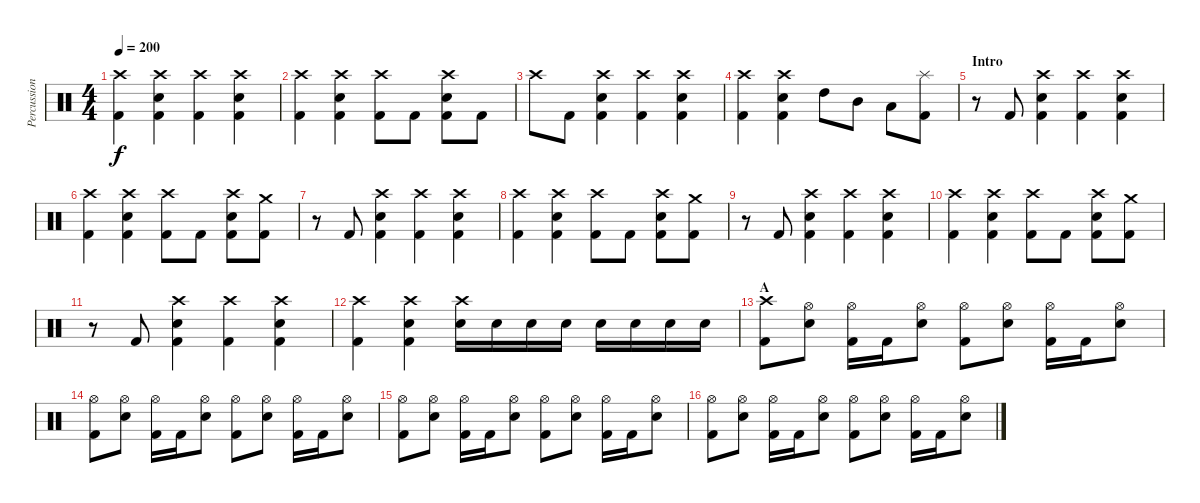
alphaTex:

\track ("Percussion" "Percussion") {instrument percussion}
\staff {score}
\articulation defaults
\ts (4 4)
\tempo 200
\clef neutral
\ks c
("Crash high (hit)" "Kick (hit) 2").4{dy f} ("Crash high (hit)" "Electric Snare (hit)" "Kick (hit) 2").4 ("Crash high (hit)" "Kick (hit) 2").4 ("Crash high (hit)" "Electric Snare (hit)" "Kick (hit) 2").4 |
("Crash high (hit)" "Kick (hit) 2").4 ("Crash high (hit)" "Electric Snare (hit)" "Kick (hit) 2").4 ("Crash high (hit)" "Kick (hit) 2").8 "Kick (hit) 2".8 ("Crash high (hit)" "Electric Snare (hit)" "Kick (hit) 2").8 "Kick (hit) 2".8 |
"Crash high (hit)".8 "Kick (hit) 2".8 ("Crash high (hit)" "Electric Snare (hit)" "Kick (hit) 2").4 ("Crash high (hit)" "Kick (hit) 2").4 ("Crash high (hit)" "Electric Snare (hit)" "Kick (hit) 2").4 |
("Crash high (hit)" "Kick (hit) 2").4 ("Crash high (hit)" "Electric Snare (hit)" "Kick (hit) 2").4 "High Tom (hit)".8 "Mid Tom (hit)".8 "Low Tom (hit)".8 ("Splash (hit)" "Kick (hit) 2").8 |
\section ("" "Intro")
r.8 "Kick (hit) 2".8 ("Crash high (hit)" "Electric Snare (hit)" "Kick (hit) 2").4 ("Crash high (hit)" "Kick (hit) 2").4 ("Crash high (hit)" "Electric Snare (hit)" "Kick (hit) 2").4 |
("Crash high (hit)" "Kick (hit) 2").4 ("Crash high (hit)" "Electric Snare (hit)" "Kick (hit) 2").4 ("Crash high (hit)" "Kick (hit) 2").8 "Kick (hit) 2".8 ("Crash high (hit)" "Electric Snare (hit)" "Kick (hit) 2").8 ("Crash medium (hit)" "Kick (hit) 2").8 |
r.8 "Kick (hit) 2".8 ("Crash high (hit)" "Electric Snare (hit)" "Kick (hit) 2").4 ("Crash high (hit)" "Kick (hit) 2").4 ("Crash high (hit)" "Electric Snare (hit)" "Kick (hit) 2").4 |
("Crash high (hit)" "Kick (hit) 2").4 ("Crash high (hit)" "Electric Snare (hit)" "Kick (hit) 2").4 ("Crash high (hit)" "Kick (hit) 2").8 "Kick (hit) 2".8 ("Crash high (hit)" "Electric Snare (hit)" "Kick (hit) 2").8 ("Crash medium (hit)" "Kick (hit) 2").8 |
r.8 "Kick (hit) 2".8 ("Crash high (hit)" "Electric Snare (hit)" "Kick (hit) 2").4 ("Crash high (hit)" "Kick (hit) 2").4 ("Crash high (hit)" "Electric Snare (hit)" "Kick (hit) 2").4 |
("Crash high (hit)" "Kick (hit) 2").4 ("Crash high (hit)" "Electric Snare (hit)" "Kick (hit) 2").4 ("Crash high (hit)" "Kick (hit) 2").8 "Kick (hit) 2".8 ("Crash high (hit)" "Electric Snare (hit)" "Kick (hit) 2").8 ("Crash medium (hit)" "Kick (hit) 2").8 |
r.8 "Kick (hit) 2".8 ("Crash high (hit)" "Electric Snare (hit)" "Kick (hit) 2").4 ("Crash high (hit)" "Kick (hit) 2").4 ("Crash high (hit)" "Electric Snare (hit)" "Kick (hit) 2").4 |
("Crash high (hit)" "Kick (hit) 2").4 ("Crash high (hit)" "Electric Snare (hit)" "Kick (hit) 2").4 ("Crash high (hit)" "Electric Snare (hit)").16 "Electric Snare (hit)".16 "Electric Snare (hit)".16 "Electric Snare (hit)".16 "Electric Snare (hit)".16 "Electric Snare (hit)".16 "Electric Snare (hit)".16 "Electric Snare (hit)".16 |
\section ("" "A")
("Crash high (hit)" "Kick (hit) 2").8 ("Hi-Hat (open)" "Electric Snare (hit)").8 ("Hi-Hat (open)" "Kick (hit) 2").16 "Kick (hit) 2".16 ("Hi-Hat (open)" "Electric Snare (hit)").8 ("Hi-Hat (open)" "Kick (hit) 2").8 ("Hi-Hat (open)" "Electric Snare (hit)").8 ("Hi-Hat (open)" "Kick (hit) 2").16 "Kick (hit) 2".16 ("Hi-Hat (open)" "Electric Snare (hit)").8 |
("Hi-Hat (open)" "Kick (hit) 2").8 ("Hi-Hat (open)" "Electric Snare (hit)").8 ("Hi-Hat (open)" "Kick (hit) 2").16 "Kick (hit) 2".16 ("Hi-Hat (open)" "Electric Snare (hit)").8 ("Hi-Hat (open)" "Kick (hit) 2").8 ("Hi-Hat (open)" "Electric Snare (hit)").8 ("Hi-Hat (open)" "Kick (hit) 2").16 "Kick (hit) 2".16 ("Hi-Hat (open)" "Electric Snare (hit)").8 |
("Hi-Hat (open)" "Kick (hit) 2").8 ("Hi-Hat (open)" "Electric Snare (hit)").8 ("Hi-Hat (open)" "Kick (hit) 2").16 "Kick (hit) 2".16 ("Hi-Hat (open)" "Electric Snare (hit)").8 ("Hi-Hat (open)" "Kick (hit) 2").8 ("Hi-Hat (open)" "Electric Snare (hit)").8 ("Hi-Hat (open)" "Kick (hit) 2").16 "Kick (hit) 2".16 ("Hi-Hat (open)" "Electric Snare (hit)").8 |
("Hi-Hat (open)" "Kick (hit) 2").8 ("Hi-Hat (open)" "Electric Snare (hit)").8 ("Hi-Hat (open)" "Kick (hit) 2").16 "Kick (hit) 2".16 ("Hi-Hat (open)" "Electric Snare (hit)").8 ("Hi-Hat (open)" "Kick (hit) 2").8 ("Hi-Hat (open)" "Electric Snare (hit)").8 ("Hi-Hat (open)" "Kick (hit) 2").16 "Kick (hit) 2".16 ("Hi-Hat (open)" "Electric Snare (hit)").8
